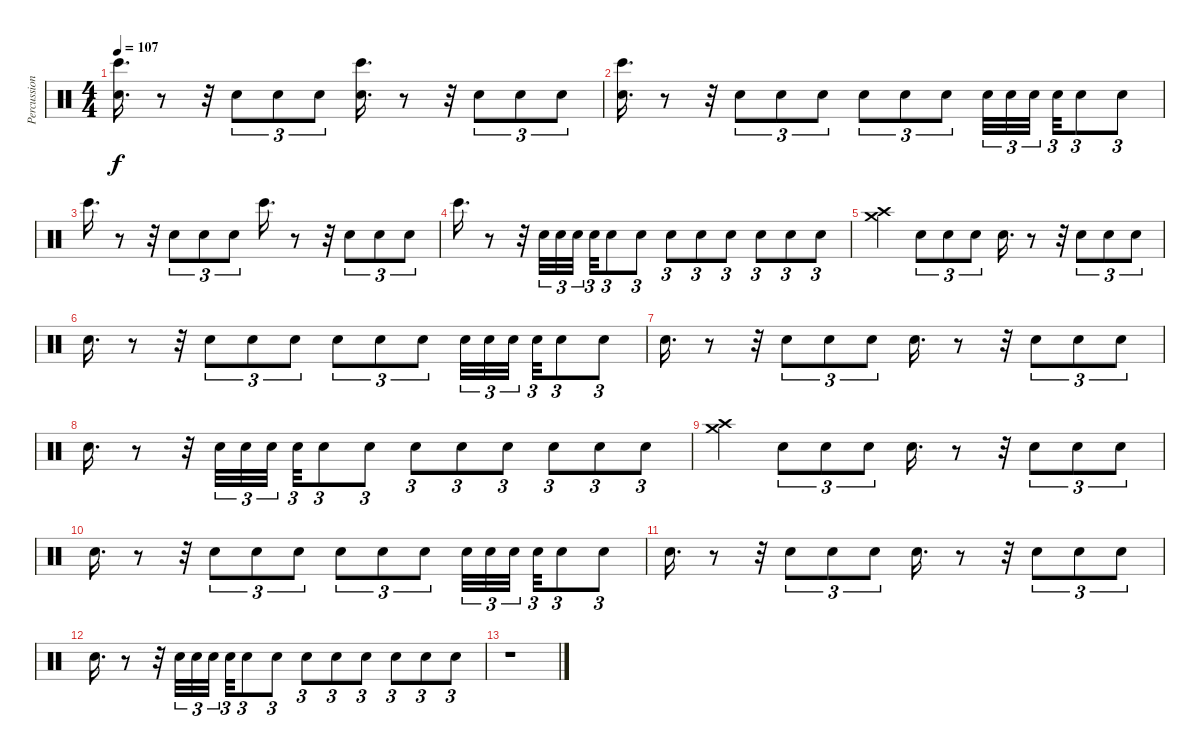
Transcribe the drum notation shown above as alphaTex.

\track ("Percussion" "Percussion") {instrument percussion}
\staff {score}
\articulation defaults
\ts (4 4)
\tempo 107
\clef neutral
\ks c
("Hand Clap (hit)" "Bongo High (hit)").16{d dy f} r.8 r.32 "Electric Snare (hit)".8{tu (3 2)} "Electric Snare (hit)".8{tu (3 2)} "Electric Snare (hit)".8{tu (3 2)} ("Hand Clap (hit)" "Bongo High (hit)").16{d} r.8 r.32 "Electric Snare (hit)".8{tu (3 2)} "Electric Snare (hit)".8{tu (3 2)} "Electric Snare (hit)".8{tu (3 2)} |
("Hand Clap (hit)" "Bongo High (hit)").16{d} r.8 r.32 "Electric Snare (hit)".8{tu (3 2)} "Electric Snare (hit)".8{tu (3 2)} "Electric Snare (hit)".8{tu (3 2)} "Electric Snare (hit)".8{tu (3 2)} "Electric Snare (hit)".8{tu (3 2)} "Electric Snare (hit)".8{tu (3 2)} "Electric Snare (hit)".32{tu (3 2)} "Electric Snare (hit)".32{tu (3 2)} "Electric Snare (hit)".32{tu (3 2) beam splitsecondary} "Electric Snare (hit)".32{tu (3 2)} "Electric Snare (hit)".8{tu (3 2)} "Electric Snare (hit)".8{tu (3 2)} |
"Bongo High (hit)".16{d} r.8 r.32 "Electric Snare (hit)".8{tu (3 2)} "Electric Snare (hit)".8{tu (3 2)} "Electric Snare (hit)".8{tu (3 2)} "Bongo High (hit)".16{d} r.8 r.32 "Electric Snare (hit)".8{tu (3 2)} "Electric Snare (hit)".8{tu (3 2)} "Electric Snare (hit)".8{tu (3 2)} |
"Bongo High (hit)".16{d} r.8 r.32 "Electric Snare (hit)".32{tu (3 2)} "Electric Snare (hit)".32{tu (3 2)} "Electric Snare (hit)".32{tu (3 2) beam splitsecondary} "Electric Snare (hit)".32{tu (3 2)} "Electric Snare (hit)".8{tu (3 2)} "Electric Snare (hit)".8{tu (3 2)} "Electric Snare (hit)".8{tu (3 2)} "Electric Snare (hit)".8{tu (3 2)} "Electric Snare (hit)".8{tu (3 2)} "Electric Snare (hit)".8{tu (3 2)} "Electric Snare (hit)".8{tu (3 2)} "Electric Snare (hit)".8{tu (3 2)} |
("Crash high (hit)" "Crash medium (hit)").4 "Electric Snare (hit)".8{tu (3 2)} "Electric Snare (hit)".8{tu (3 2)} "Electric Snare (hit)".8{tu (3 2)} "Hand Clap (hit)".16{d} r.8 r.32 "Electric Snare (hit)".8{tu (3 2)} "Electric Snare (hit)".8{tu (3 2)} "Electric Snare (hit)".8{tu (3 2)} |
"Hand Clap (hit)".16{d} r.8 r.32 "Electric Snare (hit)".8{tu (3 2)} "Electric Snare (hit)".8{tu (3 2)} "Electric Snare (hit)".8{tu (3 2)} "Electric Snare (hit)".8{tu (3 2)} "Electric Snare (hit)".8{tu (3 2)} "Electric Snare (hit)".8{tu (3 2)} "Electric Snare (hit)".32{tu (3 2)} "Electric Snare (hit)".32{tu (3 2)} "Electric Snare (hit)".32{tu (3 2) beam splitsecondary} "Electric Snare (hit)".32{tu (3 2)} "Electric Snare (hit)".8{tu (3 2)} "Electric Snare (hit)".8{tu (3 2)} |
"Hand Clap (hit)".16{d} r.8 r.32 "Electric Snare (hit)".8{tu (3 2)} "Electric Snare (hit)".8{tu (3 2)} "Electric Snare (hit)".8{tu (3 2)} "Hand Clap (hit)".16{d} r.8 r.32 "Electric Snare (hit)".8{tu (3 2)} "Electric Snare (hit)".8{tu (3 2)} "Electric Snare (hit)".8{tu (3 2)} |
"Hand Clap (hit)".16{d} r.8 r.32 "Electric Snare (hit)".32{tu (3 2)} "Electric Snare (hit)".32{tu (3 2)} "Electric Snare (hit)".32{tu (3 2) beam splitsecondary} "Electric Snare (hit)".32{tu (3 2)} "Electric Snare (hit)".8{tu (3 2)} "Electric Snare (hit)".8{tu (3 2)} "Electric Snare (hit)".8{tu (3 2)} "Electric Snare (hit)".8{tu (3 2)} "Electric Snare (hit)".8{tu (3 2)} "Electric Snare (hit)".8{tu (3 2)} "Electric Snare (hit)".8{tu (3 2)} "Electric Snare (hit)".8{tu (3 2)} |
("Crash high (hit)" "Crash medium (hit)").4 "Electric Snare (hit)".8{tu (3 2)} "Electric Snare (hit)".8{tu (3 2)} "Electric Snare (hit)".8{tu (3 2)} "Hand Clap (hit)".16{d} r.8 r.32 "Electric Snare (hit)".8{tu (3 2)} "Electric Snare (hit)".8{tu (3 2)} "Electric Snare (hit)".8{tu (3 2)} |
"Hand Clap (hit)".16{d} r.8 r.32 "Electric Snare (hit)".8{tu (3 2)} "Electric Snare (hit)".8{tu (3 2)} "Electric Snare (hit)".8{tu (3 2)} "Electric Snare (hit)".8{tu (3 2)} "Electric Snare (hit)".8{tu (3 2)} "Electric Snare (hit)".8{tu (3 2)} "Electric Snare (hit)".32{tu (3 2)} "Electric Snare (hit)".32{tu (3 2)} "Electric Snare (hit)".32{tu (3 2) beam splitsecondary} "Electric Snare (hit)".32{tu (3 2)} "Electric Snare (hit)".8{tu (3 2)} "Electric Snare (hit)".8{tu (3 2)} |
"Hand Clap (hit)".16{d} r.8 r.32 "Electric Snare (hit)".8{tu (3 2)} "Electric Snare (hit)".8{tu (3 2)} "Electric Snare (hit)".8{tu (3 2)} "Hand Clap (hit)".16{d} r.8 r.32 "Electric Snare (hit)".8{tu (3 2)} "Electric Snare (hit)".8{tu (3 2)} "Electric Snare (hit)".8{tu (3 2)} |
"Hand Clap (hit)".16{d} r.8 r.32 "Electric Snare (hit)".32{tu (3 2)} "Electric Snare (hit)".32{tu (3 2)} "Electric Snare (hit)".32{tu (3 2) beam splitsecondary} "Electric Snare (hit)".32{tu (3 2)} "Electric Snare (hit)".8{tu (3 2)} "Electric Snare (hit)".8{tu (3 2)} "Electric Snare (hit)".8{tu (3 2)} "Electric Snare (hit)".8{tu (3 2)} "Electric Snare (hit)".8{tu (3 2)} "Electric Snare (hit)".8{tu (3 2)} "Electric Snare (hit)".8{tu (3 2)} "Electric Snare (hit)".8{tu (3 2)} |
r.1
